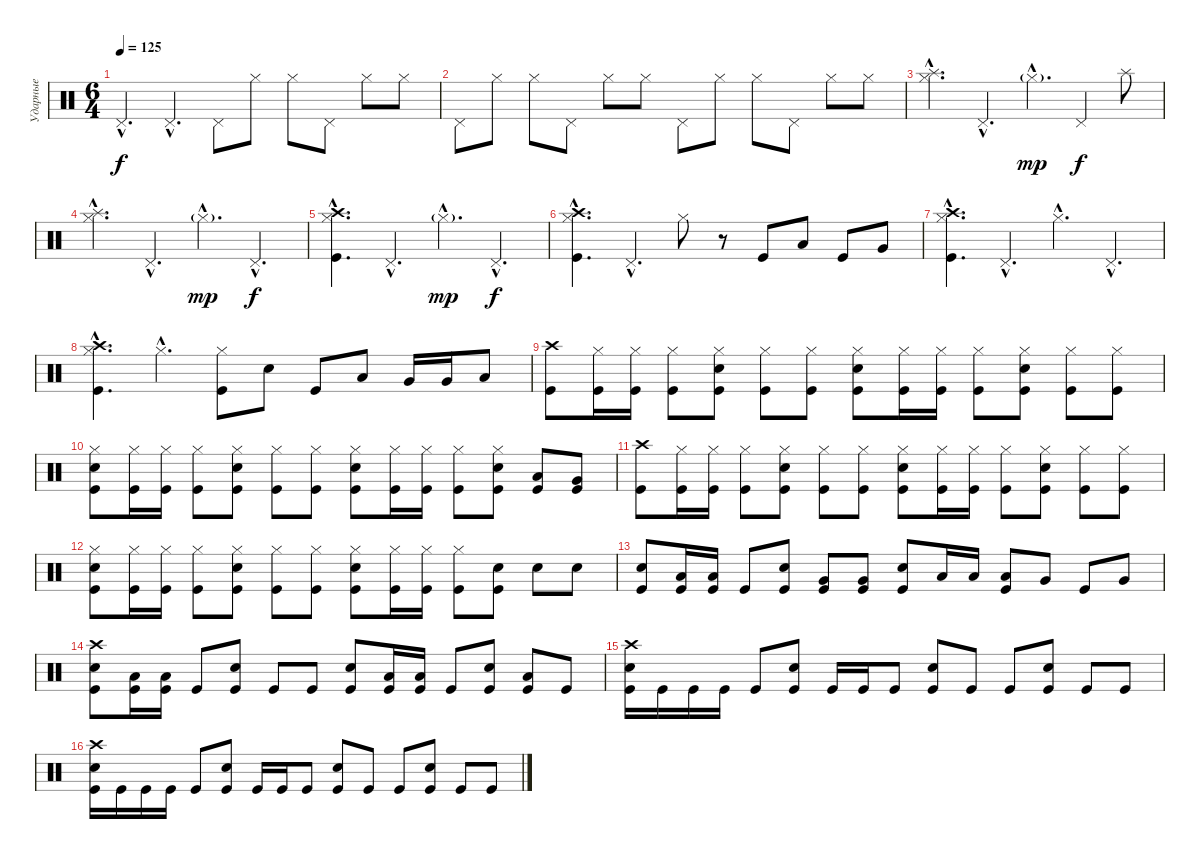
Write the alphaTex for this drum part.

\track ("Ударные" "Ударные") {instrument percussion}
\staff {score}
\articulation defaults
\ts (6 4)
\tempo 125
\clef neutral
\ks c "Pedal Hi-Hat (hit)"{hac}.4{d dy f} "Pedal Hi-Hat (hit)"{hac}.4{d} "Pedal Hi-Hat (hit)".8 "Hi-Hat (closed)".8 "Hi-Hat (closed)".8 "Pedal Hi-Hat (hit)".8 "Hi-Hat (closed)".8 "Hi-Hat (closed)".8
|
"Pedal Hi-Hat (hit)".8 "Hi-Hat (closed)".8 "Hi-Hat (closed)".8 "Pedal Hi-Hat (hit)".8 "Hi-Hat (closed)".8 "Hi-Hat (closed)".8 "Pedal Hi-Hat (hit)".8 "Hi-Hat (closed)".8 "Hi-Hat (closed)".8 "Pedal Hi-Hat (hit)".8 "Hi-Hat (closed)".8 "Hi-Hat (closed)".8 |
("Splash (hit)"{hac} "Hi-Hat (closed)"{hac}).4{d} "Pedal Hi-Hat (hit)"{hac}.4{d} "Hi-Hat (closed)"{g hac}.4{d dy mp} "Pedal Hi-Hat (hit)".4{dy f} "Splash (hit)".8 |
("Splash (hit)"{hac} "Hi-Hat (closed)"{hac}).4{d} "Pedal Hi-Hat (hit)"{hac}.4{d} "Hi-Hat (closed)"{g hac}.4{d dy mp} "Pedal Hi-Hat (hit)"{hac}.4{d dy f} |
("Crash high (hit)"{hac} "Hi-Hat (closed)"{hac} "Kick (hit)"{hac}).4{d} "Pedal Hi-Hat (hit)"{hac}.4{d} "Hi-Hat (closed)"{g hac}.4{d dy mp} "Pedal Hi-Hat (hit)"{hac}.4{d dy f} |
("Crash high (hit)"{hac} "Hi-Hat (closed)"{hac} "Kick (hit)"{hac}).4{d} "Pedal Hi-Hat (hit)"{hac}.4{d} "Hi-Hat (closed)".8 r.8 "Kick (hit)".8 "Low Tom (hit)".8 "Kick (hit)".8 "Very Low Tom (hit)".8 |
("Crash high (hit)"{hac} "Hi-Hat (closed)"{hac} "Kick (hit)"{hac}).4{d} "Pedal Hi-Hat (hit)"{hac}.4{d} "Hi-Hat (closed)"{hac}.4{d} "Pedal Hi-Hat (hit)"{hac}.4{d} |
("Crash high (hit)"{hac} "Hi-Hat (closed)"{hac} "Kick (hit)"{hac}).4{d} "Hi-Hat (closed)"{hac}.4{d} ("Hi-Hat (closed)" "Kick (hit)").8 "Electric Snare (hit)".8 "Kick (hit)".8 "Low Tom (hit)".8 "Very Low Tom (hit)".16 "Very Low Tom (hit)".16 "Low Tom (hit)".8 |
("Crash high (hit)" "Kick (hit)").8 ("Hi-Hat (closed)" "Kick (hit)").16 ("Hi-Hat (closed)" "Kick (hit)").16 ("Hi-Hat (closed)" "Kick (hit)").8 ("Hi-Hat (closed)" "Electric Snare (hit)" "Kick (hit)").8 ("Hi-Hat (closed)" "Kick (hit)").8 ("Hi-Hat (closed)" "Kick (hit)").8 ("Hi-Hat (closed)" "Electric Snare (hit)" "Kick (hit)").8 ("Hi-Hat (closed)" "Kick (hit)").16 ("Hi-Hat (closed)" "Kick (hit)").16 ("Hi-Hat (closed)" "Kick (hit)").8 ("Hi-Hat (closed)" "Electric Snare (hit)" "Kick (hit)").8 ("Hi-Hat (closed)" "Kick (hit)").8 ("Hi-Hat (closed)" "Kick (hit)").8 |
("Hi-Hat (closed)" "Electric Snare (hit)" "Kick (hit)").8 ("Hi-Hat (closed)" "Kick (hit)").16 ("Hi-Hat (closed)" "Kick (hit)").16 ("Hi-Hat (closed)" "Kick (hit)").8 ("Hi-Hat (closed)" "Electric Snare (hit)" "Kick (hit)").8 ("Hi-Hat (closed)" "Kick (hit)").8 ("Hi-Hat (closed)" "Kick (hit)").8 ("Hi-Hat (closed)" "Electric Snare (hit)" "Kick (hit)").8 ("Hi-Hat (closed)" "Kick (hit)").16 ("Hi-Hat (closed)" "Kick (hit)").16 ("Hi-Hat (closed)" "Kick (hit)").8 ("Hi-Hat (closed)" "Electric Snare (hit)" "Kick (hit)").8 ("Low Tom (hit)" "Kick (hit)").8 ("Very Low Tom (hit)" "Kick (hit)").8 |
("Crash high (hit)" "Kick (hit)").8 ("Hi-Hat (closed)" "Kick (hit)").16 ("Hi-Hat (closed)" "Kick (hit)").16 ("Hi-Hat (closed)" "Kick (hit)").8 ("Hi-Hat (closed)" "Electric Snare (hit)" "Kick (hit)").8 ("Hi-Hat (closed)" "Kick (hit)").8 ("Hi-Hat (closed)" "Kick (hit)").8 ("Hi-Hat (closed)" "Electric Snare (hit)" "Kick (hit)").8 ("Hi-Hat (closed)" "Kick (hit)").16 ("Hi-Hat (closed)" "Kick (hit)").16 ("Hi-Hat (closed)" "Kick (hit)").8 ("Hi-Hat (closed)" "Electric Snare (hit)" "Kick (hit)").8 ("Hi-Hat (closed)" "Kick (hit)").8 ("Hi-Hat (closed)" "Kick (hit)").8 |
("Hi-Hat (closed)" "Electric Snare (hit)" "Kick (hit)").8 ("Hi-Hat (closed)" "Kick (hit)").16 ("Hi-Hat (closed)" "Kick (hit)").16 ("Hi-Hat (closed)" "Kick (hit)").8 ("Hi-Hat (closed)" "Electric Snare (hit)" "Kick (hit)").8 ("Hi-Hat (closed)" "Kick (hit)").8 ("Hi-Hat (closed)" "Kick (hit)").8 ("Hi-Hat (closed)" "Electric Snare (hit)" "Kick (hit)").8 ("Hi-Hat (closed)" "Kick (hit)").16 ("Hi-Hat (closed)" "Kick (hit)").16 ("Hi-Hat (closed)" "Kick (hit)").8 ("Electric Snare (hit)" "Kick (hit)").8 "Electric Snare (hit)".8 "Electric Snare (hit)".8 |
("Electric Snare (hit)" "Kick (hit)").8 ("Low Tom (hit)" "Kick (hit)").16 ("Low Tom (hit)" "Kick (hit)").16 "Kick (hit)".8 ("Electric Snare (hit)" "Kick (hit)").8 ("Very Low Tom (hit)" "Kick (hit)").8 ("Very Low Tom (hit)" "Kick (hit)").8 ("Electric Snare (hit)" "Kick (hit)").8 "Low Tom (hit)".16 "Low Tom (hit)".16 ("Low Tom (hit)" "Kick (hit)").8 "Very Low Tom (hit)".8 "Kick (hit)".8 "Very Low Tom (hit)".8 |
("Crash high (hit)" "Electric Snare (hit)" "Kick (hit)").8 ("Low Tom (hit)" "Kick (hit)").16 ("Low Tom (hit)" "Kick (hit)").16 "Kick (hit)".8 ("Electric Snare (hit)" "Kick (hit)").8 "Kick (hit)".8 "Kick (hit)".8 ("Electric Snare (hit)" "Kick (hit)").8 ("Low Tom (hit)" "Kick (hit)").16 ("Low Tom (hit)" "Kick (hit)").16 "Kick (hit)".8 ("Electric Snare (hit)" "Kick (hit)").8 ("Low Tom (hit)" "Kick (hit)").8 "Kick (hit)".8 |
("Crash high (hit)" "Electric Snare (hit)" "Kick (hit)").16 "Kick (hit)".16 "Kick (hit)".16 "Kick (hit)".16 "Kick (hit)".8 ("Electric Snare (hit)" "Kick (hit)").8 "Kick (hit)".16 "Kick (hit)".16 "Kick (hit)".8 ("Electric Snare (hit)" "Kick (hit)").8 "Kick (hit)".8 "Kick (hit)".8 ("Electric Snare (hit)" "Kick (hit)").8 "Kick (hit)".8 "Kick (hit)".8 |
("Crash high (hit)" "Electric Snare (hit)" "Kick (hit)").16 "Kick (hit)".16 "Kick (hit)".16 "Kick (hit)".16 "Kick (hit)".8 ("Electric Snare (hit)" "Kick (hit)").8 "Kick (hit)".16 "Kick (hit)".16 "Kick (hit)".8 ("Electric Snare (hit)" "Kick (hit)").8 "Kick (hit)".8 "Kick (hit)".8 ("Electric Snare (hit)" "Kick (hit)").8 "Kick (hit)".8 "Kick (hit)".8
